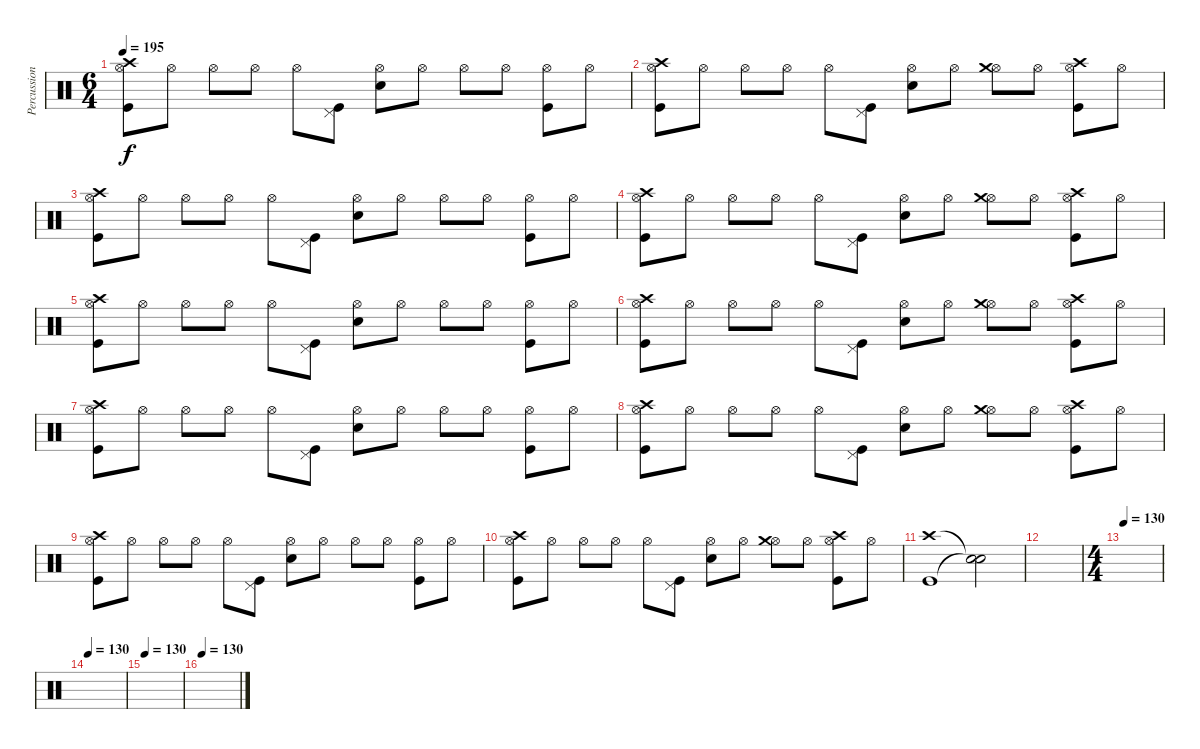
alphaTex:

\track ("Percussion" "Percussion") {instrument percussion}
\staff {score}
\articulation defaults
\ts (6 4)
\tempo 195
\clef neutral
\ks c
("Crash high (hit)" "Hi-Hat (open)" "Kick (hit)").8{dy f} "Hi-Hat (open)".8 "Hi-Hat (open)".8 "Hi-Hat (open)".8 "Hi-Hat (open)".8 ("Pedal Hi-Hat (hit)" "Kick (hit)").8 ("Hi-Hat (open)" "Electric Snare (hit)").8 "Hi-Hat (open)".8 "Hi-Hat (open)".8 "Hi-Hat (open)".8 ("Hi-Hat (open)" "Kick (hit)").8 "Hi-Hat (open)".8 |
("Crash high (hit)" "Hi-Hat (open)" "Kick (hit)").8 "Hi-Hat (open)".8 "Hi-Hat (open)".8 "Hi-Hat (open)".8 "Hi-Hat (open)".8 ("Pedal Hi-Hat (hit)" "Kick (hit)").8 ("Hi-Hat (open)" "Electric Snare (hit)").8 "Hi-Hat (open)".8 ("Hi-Hat (open)" "Crash medium (hit)").8 "Hi-Hat (open)".8 ("Hi-Hat (open)" "Crash high (hit)" "Kick (hit)").8 "Hi-Hat (open)".8 |
("Crash high (hit)" "Hi-Hat (open)" "Kick (hit)").8 "Hi-Hat (open)".8 "Hi-Hat (open)".8 "Hi-Hat (open)".8 "Hi-Hat (open)".8 ("Pedal Hi-Hat (hit)" "Kick (hit)").8 ("Hi-Hat (open)" "Electric Snare (hit)").8 "Hi-Hat (open)".8 "Hi-Hat (open)".8 "Hi-Hat (open)".8 ("Hi-Hat (open)" "Kick (hit)").8 "Hi-Hat (open)".8 |
("Crash high (hit)" "Hi-Hat (open)" "Kick (hit)").8 "Hi-Hat (open)".8 "Hi-Hat (open)".8 "Hi-Hat (open)".8 "Hi-Hat (open)".8 ("Pedal Hi-Hat (hit)" "Kick (hit)").8 ("Hi-Hat (open)" "Electric Snare (hit)").8 "Hi-Hat (open)".8 ("Hi-Hat (open)" "Crash medium (hit)").8 "Hi-Hat (open)".8 ("Hi-Hat (open)" "Crash high (hit)" "Kick (hit)").8 "Hi-Hat (open)".8 |
("Crash high (hit)" "Hi-Hat (open)" "Kick (hit)").8 "Hi-Hat (open)".8 "Hi-Hat (open)".8 "Hi-Hat (open)".8 "Hi-Hat (open)".8 ("Pedal Hi-Hat (hit)" "Kick (hit)").8 ("Hi-Hat (open)" "Electric Snare (hit)").8 "Hi-Hat (open)".8 "Hi-Hat (open)".8 "Hi-Hat (open)".8 ("Hi-Hat (open)" "Kick (hit)").8 "Hi-Hat (open)".8 |
("Crash high (hit)" "Hi-Hat (open)" "Kick (hit)").8 "Hi-Hat (open)".8 "Hi-Hat (open)".8 "Hi-Hat (open)".8 "Hi-Hat (open)".8 ("Pedal Hi-Hat (hit)" "Kick (hit)").8 ("Hi-Hat (open)" "Electric Snare (hit)").8 "Hi-Hat (open)".8 ("Hi-Hat (open)" "Crash medium (hit)").8 "Hi-Hat (open)".8 ("Hi-Hat (open)" "Crash high (hit)" "Kick (hit)").8 "Hi-Hat (open)".8 |
("Crash high (hit)" "Hi-Hat (open)" "Kick (hit)").8 "Hi-Hat (open)".8 "Hi-Hat (open)".8 "Hi-Hat (open)".8 "Hi-Hat (open)".8 ("Pedal Hi-Hat (hit)" "Kick (hit)").8 ("Hi-Hat (open)" "Electric Snare (hit)").8 "Hi-Hat (open)".8 "Hi-Hat (open)".8 "Hi-Hat (open)".8 ("Hi-Hat (open)" "Kick (hit)").8 "Hi-Hat (open)".8 |
("Crash high (hit)" "Hi-Hat (open)" "Kick (hit)").8 "Hi-Hat (open)".8 "Hi-Hat (open)".8 "Hi-Hat (open)".8 "Hi-Hat (open)".8 ("Pedal Hi-Hat (hit)" "Kick (hit)").8 ("Hi-Hat (open)" "Electric Snare (hit)").8 "Hi-Hat (open)".8 ("Hi-Hat (open)" "Crash medium (hit)").8 "Hi-Hat (open)".8 ("Hi-Hat (open)" "Crash high (hit)" "Kick (hit)").8 "Hi-Hat (open)".8 |
("Crash high (hit)" "Hi-Hat (open)" "Kick (hit)").8 "Hi-Hat (open)".8 "Hi-Hat (open)".8 "Hi-Hat (open)".8 "Hi-Hat (open)".8 ("Pedal Hi-Hat (hit)" "Kick (hit)").8 ("Hi-Hat (open)" "Electric Snare (hit)").8 "Hi-Hat (open)".8 "Hi-Hat (open)".8 "Hi-Hat (open)".8 ("Hi-Hat (open)" "Kick (hit)").8 "Hi-Hat (open)".8 |
("Crash high (hit)" "Hi-Hat (open)" "Kick (hit)").8 "Hi-Hat (open)".8 "Hi-Hat (open)".8 "Hi-Hat (open)".8 "Hi-Hat (open)".8 ("Pedal Hi-Hat (hit)" "Kick (hit)").8 ("Hi-Hat (open)" "Electric Snare (hit)").8 "Hi-Hat (open)".8 ("Hi-Hat (open)" "Crash medium (hit)").8 "Hi-Hat (open)".8 ("Hi-Hat (open)" "Crash high (hit)" "Kick (hit)").8 "Hi-Hat (open)".8 |
("Crash high (hit)" "Kick (hit)").1 ("Snare (hit)"{t} "Snare (hit)"{t}).2 |
|
\ts (4 4)
\tempo 130
|
\tempo 130
|
\tempo 130
|
\tempo 130
